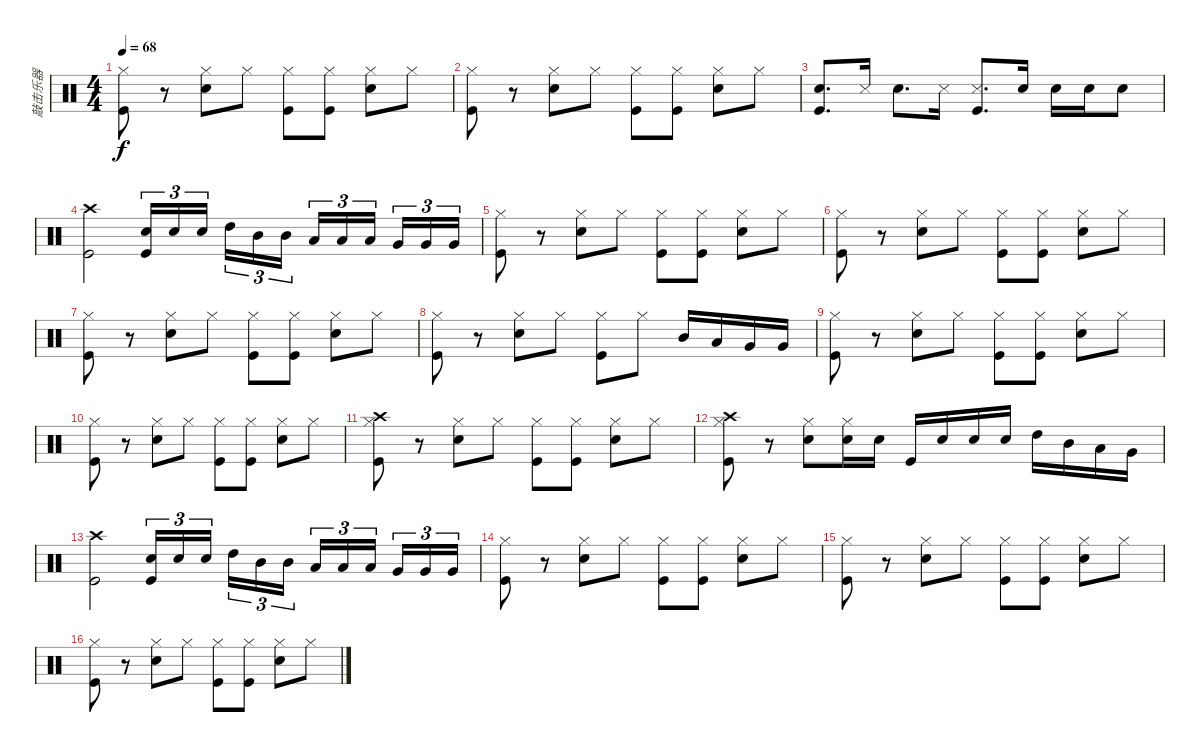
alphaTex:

\track ("敲击乐器" "敲击乐器") {instrument percussion}
\staff {score}
\articulation defaults
\ts (4 4)
\tempo 68
\clef neutral
\ks c
("Hi-Hat (closed)" "Kick (hit)").8{dy f} r.8 ("Hi-Hat (closed)" "Snare (hit) 2").8 "Hi-Hat (closed)".8 ("Hi-Hat (closed)" "Kick (hit)").8 ("Hi-Hat (closed)" "Kick (hit)").8 ("Hi-Hat (closed)" "Snare (hit) 2").8 "Hi-Hat (closed)".8 |
("Hi-Hat (closed)" "Kick (hit)").8 r.8 ("Hi-Hat (closed)" "Snare (hit) 2").8 "Hi-Hat (closed)".8 ("Hi-Hat (closed)" "Kick (hit)").8 ("Hi-Hat (closed)" "Kick (hit)").8 ("Hi-Hat (closed)" "Snare (hit) 2").8 "Hi-Hat (closed)".8 |
("Snare (hit) 2" "Kick (hit)").8{d} "Snare (side stick) 3".16 "Snare (hit) 2".8{d} "Snare (side stick) 3".16 ("Snare (side stick) 3" "Kick (hit)").8{d} "Snare (hit) 2".16 "Snare (hit) 2".16 "Snare (hit) 2".16 "Snare (hit) 2".8 |
("Crash high (hit)" "Kick (hit)").2 ("Snare (hit) 2" "Kick (hit)").16{tu (3 2)} "Snare (hit) 2".16{tu (3 2)} "Snare (hit) 2".16{tu (3 2) beam splitsecondary} "High Tom (hit)".16{tu (3 2)} "Mid Tom (hit)".16{tu (3 2)} "Mid Tom (hit)".16{tu (3 2)} "Low Tom (hit)".16{tu (3 2)} "Low Tom (hit)".16{tu (3 2)} "Low Tom (hit)".16{tu (3 2) beam splitsecondary} "Very Low Tom (hit)".16{tu (3 2)} "Very Low Tom (hit)".16{tu (3 2)} "Very Low Tom (hit)".16{tu (3 2)} |
("Hi-Hat (closed)" "Kick (hit)").8 r.8 ("Hi-Hat (closed)" "Snare (hit) 2").8 "Hi-Hat (closed)".8 ("Hi-Hat (closed)" "Kick (hit)").8 ("Hi-Hat (closed)" "Kick (hit)").8 ("Hi-Hat (closed)" "Snare (hit) 2").8 "Hi-Hat (closed)".8 |
("Hi-Hat (closed)" "Kick (hit)").8 r.8 ("Hi-Hat (closed)" "Snare (hit) 2").8 "Hi-Hat (closed)".8 ("Hi-Hat (closed)" "Kick (hit)").8 ("Hi-Hat (closed)" "Kick (hit)").8 ("Hi-Hat (closed)" "Snare (hit) 2").8 "Hi-Hat (closed)".8 |
("Hi-Hat (closed)" "Kick (hit)").8 r.8 ("Hi-Hat (closed)" "Snare (hit) 2").8 "Hi-Hat (closed)".8 ("Hi-Hat (closed)" "Kick (hit)").8 ("Hi-Hat (closed)" "Kick (hit)").8 ("Hi-Hat (closed)" "Snare (hit) 2").8 "Hi-Hat (closed)".8 |
("Hi-Hat (closed)" "Kick (hit)").8 r.8 ("Hi-Hat (closed)" "Snare (hit) 2").8 "Hi-Hat (closed)".8 ("Hi-Hat (closed)" "Kick (hit)").8 "Hi-Hat (closed)".8 "Mid Tom (hit)".16 "Low Tom (hit)".16 "Very Low Tom (hit)".16 "Very Low Tom (hit)".16 |
("Hi-Hat (closed)" "Kick (hit)").8 r.8 ("Hi-Hat (closed)" "Snare (hit) 2").8 "Hi-Hat (closed)".8 ("Hi-Hat (closed)" "Kick (hit)").8 ("Hi-Hat (closed)" "Kick (hit)").8 ("Hi-Hat (closed)" "Snare (hit) 2").8 "Hi-Hat (closed)".8 |
("Hi-Hat (closed)" "Kick (hit)").8 r.8 ("Hi-Hat (closed)" "Snare (hit) 2").8 "Hi-Hat (closed)".8 ("Hi-Hat (closed)" "Kick (hit)").8 ("Hi-Hat (closed)" "Kick (hit)").8 ("Hi-Hat (closed)" "Snare (hit) 2").8 "Hi-Hat (closed)".8 |
("Hi-Hat (closed)" "Crash high (hit)" "Kick (hit)").8 r.8 ("Hi-Hat (closed)" "Snare (hit) 2").8 "Hi-Hat (closed)".8 ("Hi-Hat (closed)" "Kick (hit)").8 ("Hi-Hat (closed)" "Kick (hit)").8 ("Hi-Hat (closed)" "Snare (hit) 2").8 "Hi-Hat (closed)".8 |
("Hi-Hat (closed)" "Crash high (hit)" "Kick (hit)").8 r.8 ("Hi-Hat (closed)" "Snare (hit) 2").8 ("Hi-Hat (closed)" "Snare (hit) 2").16 "Snare (hit) 2".16 "Kick (hit)".16 "Snare (hit) 2".16 "Snare (hit) 2".16 "Snare (hit) 2".16 "High Tom (hit)".16 "Mid Tom (hit)".16 "Low Tom (hit)".16 "Very Low Tom (hit)".16 |
("Crash high (hit)" "Kick (hit)").2 ("Snare (hit) 2" "Kick (hit)").16{tu (3 2)} "Snare (hit) 2".16{tu (3 2)} "Snare (hit) 2".16{tu (3 2) beam splitsecondary} "High Tom (hit)".16{tu (3 2)} "Mid Tom (hit)".16{tu (3 2)} "Mid Tom (hit)".16{tu (3 2)} "Low Tom (hit)".16{tu (3 2)} "Low Tom (hit)".16{tu (3 2)} "Low Tom (hit)".16{tu (3 2) beam splitsecondary} "Very Low Tom (hit)".16{tu (3 2)} "Very Low Tom (hit)".16{tu (3 2)} "Very Low Tom (hit)".16{tu (3 2)} |
("Hi-Hat (closed)" "Kick (hit)").8 r.8 ("Hi-Hat (closed)" "Snare (hit) 2").8 "Hi-Hat (closed)".8 ("Hi-Hat (closed)" "Kick (hit)").8 ("Hi-Hat (closed)" "Kick (hit)").8 ("Hi-Hat (closed)" "Snare (hit) 2").8 "Hi-Hat (closed)".8 |
("Hi-Hat (closed)" "Kick (hit)").8 r.8 ("Hi-Hat (closed)" "Snare (hit) 2").8 "Hi-Hat (closed)".8 ("Hi-Hat (closed)" "Kick (hit)").8 ("Hi-Hat (closed)" "Kick (hit)").8 ("Hi-Hat (closed)" "Snare (hit) 2").8 "Hi-Hat (closed)".8 |
("Hi-Hat (closed)" "Kick (hit)").8 r.8 ("Hi-Hat (closed)" "Snare (hit) 2").8 "Hi-Hat (closed)".8 ("Hi-Hat (closed)" "Kick (hit)").8 ("Hi-Hat (closed)" "Kick (hit)").8 ("Hi-Hat (closed)" "Snare (hit) 2").8 "Hi-Hat (closed)".8
